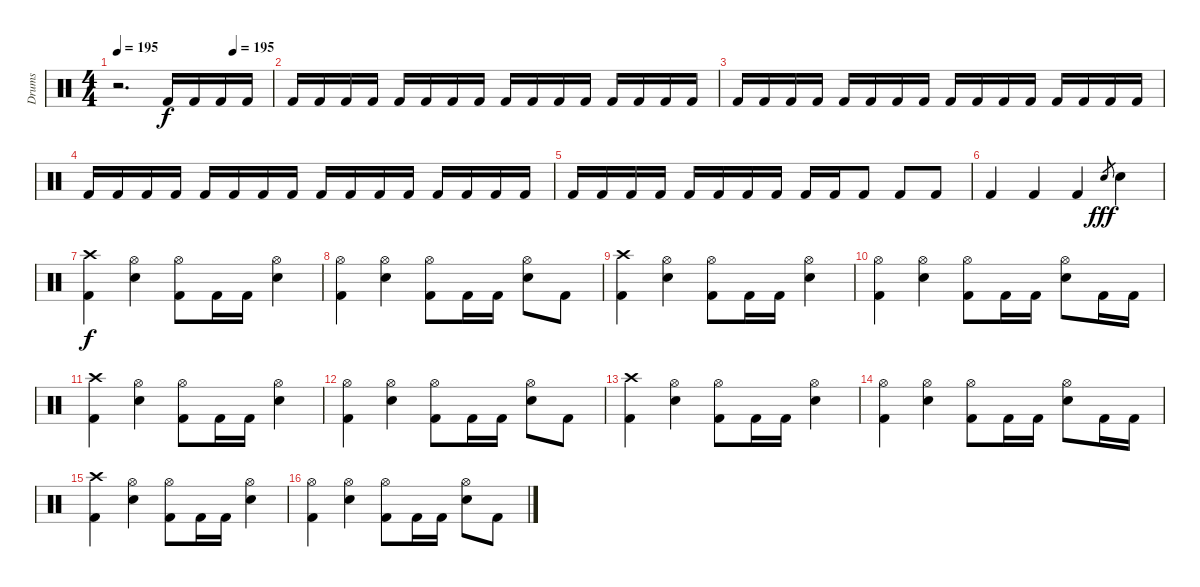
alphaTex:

\track ("Drums" "Drums") {instrument percussion}
\staff {score}
\articulation defaults
\ts (4 4)
\tempo 195
\tempo (195 0.75)
\clef neutral
\ks c
r.2{d dy f} "Kick (hit) 2".16 "Kick (hit) 2".16 "Kick (hit) 2".16 "Kick (hit) 2".16 |
"Kick (hit) 2".16 "Kick (hit) 2".16 "Kick (hit) 2".16 "Kick (hit) 2".16 "Kick (hit) 2".16 "Kick (hit) 2".16 "Kick (hit) 2".16 "Kick (hit) 2".16 "Kick (hit) 2".16 "Kick (hit) 2".16 "Kick (hit) 2".16 "Kick (hit) 2".16 "Kick (hit) 2".16 "Kick (hit) 2".16 "Kick (hit) 2".16 "Kick (hit) 2".16 |
"Kick (hit) 2".16 "Kick (hit) 2".16 "Kick (hit) 2".16 "Kick (hit) 2".16 "Kick (hit) 2".16 "Kick (hit) 2".16 "Kick (hit) 2".16 "Kick (hit) 2".16 "Kick (hit) 2".16 "Kick (hit) 2".16 "Kick (hit) 2".16 "Kick (hit) 2".16 "Kick (hit) 2".16 "Kick (hit) 2".16 "Kick (hit) 2".16 "Kick (hit) 2".16 |
"Kick (hit) 2".16 "Kick (hit) 2".16 "Kick (hit) 2".16 "Kick (hit) 2".16 "Kick (hit) 2".16 "Kick (hit) 2".16 "Kick (hit) 2".16 "Kick (hit) 2".16 "Kick (hit) 2".16 "Kick (hit) 2".16 "Kick (hit) 2".16 "Kick (hit) 2".16 "Kick (hit) 2".16 "Kick (hit) 2".16 "Kick (hit) 2".16 "Kick (hit) 2".16 |
"Kick (hit) 2".16 "Kick (hit) 2".16 "Kick (hit) 2".16 "Kick (hit) 2".16 "Kick (hit) 2".16 "Kick (hit) 2".16 "Kick (hit) 2".16 "Kick (hit) 2".16 "Kick (hit) 2".16 "Kick (hit) 2".16 "Kick (hit) 2".8 "Kick (hit) 2".8 "Kick (hit) 2".8 |
"Kick (hit) 2".4 "Kick (hit) 2".4 "Kick (hit) 2".4 "Snare (hit) 2".8{gr dy fff} "Snare (hit) 2".4 |
("Crash high (hit)" "Kick (hit) 2").4{dy f} ("Hi-Hat (open)" "Snare (hit) 2").4 ("Hi-Hat (open)" "Kick (hit) 2").8 "Kick (hit) 2".16 "Kick (hit) 2".16 ("Hi-Hat (open)" "Snare (hit) 2").4 |
("Hi-Hat (open)" "Kick (hit) 2").4 ("Hi-Hat (open)" "Snare (hit) 2").4 ("Hi-Hat (open)" "Kick (hit) 2").8 "Kick (hit) 2".16 "Kick (hit) 2".16 ("Hi-Hat (open)" "Snare (hit) 2").8 "Kick (hit) 2".8 |
("Crash high (hit)" "Kick (hit) 2").4 ("Hi-Hat (open)" "Snare (hit) 2").4 ("Hi-Hat (open)" "Kick (hit) 2").8 "Kick (hit) 2".16 "Kick (hit) 2".16 ("Hi-Hat (open)" "Snare (hit) 2").4 |
("Hi-Hat (open)" "Kick (hit) 2").4 ("Hi-Hat (open)" "Snare (hit) 2").4 ("Hi-Hat (open)" "Kick (hit) 2").8 "Kick (hit) 2".16 "Kick (hit) 2".16 ("Hi-Hat (open)" "Snare (hit) 2").8 "Kick (hit) 2".16 "Kick (hit) 2".16 |
("Crash high (hit)" "Kick (hit) 2").4 ("Hi-Hat (open)" "Snare (hit) 2").4 ("Hi-Hat (open)" "Kick (hit) 2").8 "Kick (hit) 2".16 "Kick (hit) 2".16 ("Hi-Hat (open)" "Snare (hit) 2").4 |
("Hi-Hat (open)" "Kick (hit) 2").4 ("Hi-Hat (open)" "Snare (hit) 2").4 ("Hi-Hat (open)" "Kick (hit) 2").8 "Kick (hit) 2".16 "Kick (hit) 2".16 ("Hi-Hat (open)" "Snare (hit) 2").8 "Kick (hit) 2".8 |
("Crash high (hit)" "Kick (hit) 2").4 ("Hi-Hat (open)" "Snare (hit) 2").4 ("Hi-Hat (open)" "Kick (hit) 2").8 "Kick (hit) 2".16 "Kick (hit) 2".16 ("Hi-Hat (open)" "Snare (hit) 2").4 |
("Hi-Hat (open)" "Kick (hit) 2").4 ("Hi-Hat (open)" "Snare (hit) 2").4 ("Hi-Hat (open)" "Kick (hit) 2").8 "Kick (hit) 2".16 "Kick (hit) 2".16 ("Hi-Hat (open)" "Snare (hit) 2").8 "Kick (hit) 2".16 "Kick (hit) 2".16 |
("Crash high (hit)" "Kick (hit) 2").4 ("Hi-Hat (open)" "Snare (hit) 2").4 ("Hi-Hat (open)" "Kick (hit) 2").8 "Kick (hit) 2".16 "Kick (hit) 2".16 ("Hi-Hat (open)" "Snare (hit) 2").4 |
("Hi-Hat (open)" "Kick (hit) 2").4 ("Hi-Hat (open)" "Snare (hit) 2").4 ("Hi-Hat (open)" "Kick (hit) 2").8 "Kick (hit) 2".16 "Kick (hit) 2".16 ("Hi-Hat (open)" "Snare (hit) 2").8 "Kick (hit) 2".8
